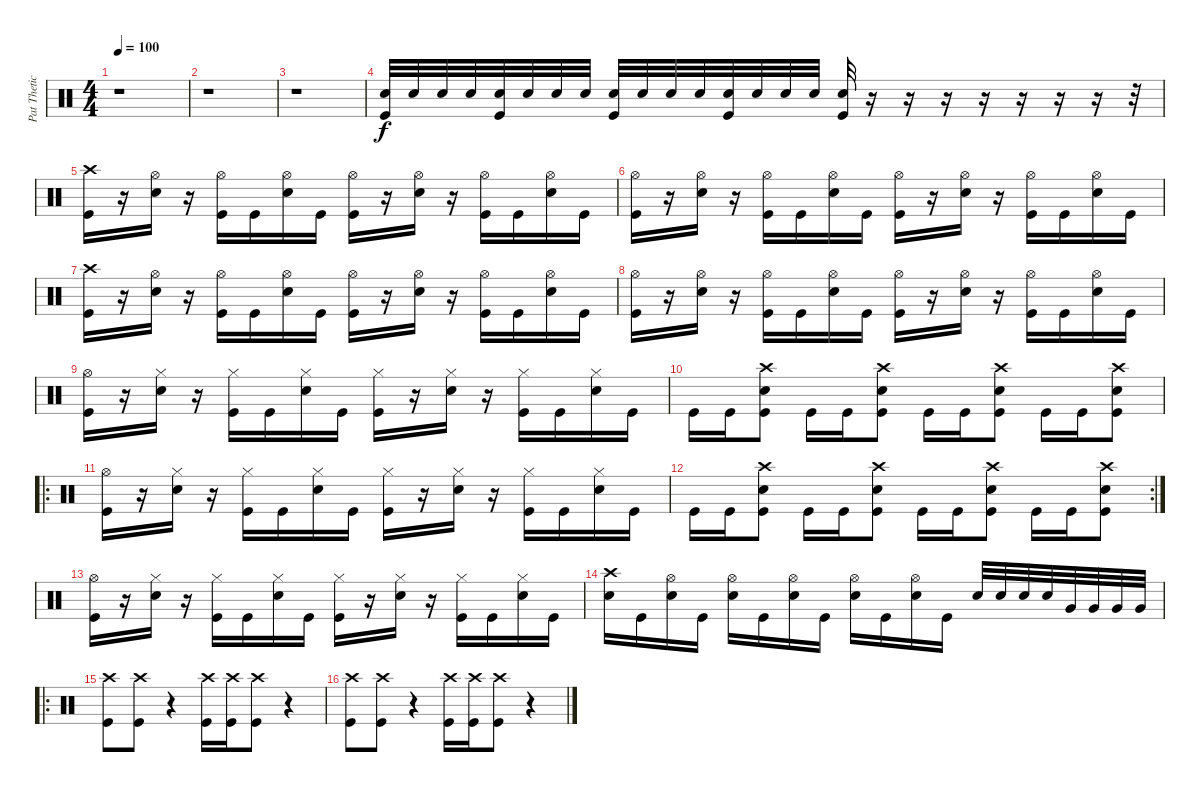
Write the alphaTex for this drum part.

\track ("Pat Thetic" "Pat Thetic") {instrument percussion}
\staff {score}
\articulation defaults
\ts (4 4)
\tempo 100
\clef neutral
\ks c
r.1{dy f} |
r.1 |
r.1 |
("Kick (hit)" "Snare (hit) 2").32 "Snare (hit) 2".32 "Snare (hit) 2".32 "Snare (hit) 2".32 ("Kick (hit)" "Snare (hit) 2").32 "Snare (hit) 2".32 "Snare (hit) 2".32 "Snare (hit) 2".32 ("Kick (hit)" "Snare (hit) 2").32 "Snare (hit) 2".32 "Snare (hit) 2".32 "Snare (hit) 2".32 ("Kick (hit)" "Snare (hit) 2").32 "Snare (hit) 2".32 "Snare (hit) 2".32 "Snare (hit) 2".32 ("Kick (hit)" "Snare (hit) 2").32 r.16 r.16 r.16 r.16 r.16 r.16 r.16 r.32 |
("Crash high (hit)" "Kick (hit)").16 r.16 ("Hi-Hat (open)" "Snare (hit) 2").16 r.16 ("Hi-Hat (open)" "Kick (hit)").16 "Kick (hit)".16 ("Hi-Hat (open)" "Snare (hit) 2").16 "Kick (hit)".16 ("Hi-Hat (open)" "Kick (hit)").16 r.16 ("Hi-Hat (open)" "Snare (hit) 2").16 r.16 ("Hi-Hat (open)" "Kick (hit)").16 "Kick (hit)".16 ("Hi-Hat (open)" "Snare (hit) 2").16 "Kick (hit)".16 |
("Hi-Hat (open)" "Kick (hit)").16 r.16 ("Hi-Hat (open)" "Snare (hit) 2").16 r.16 ("Hi-Hat (open)" "Kick (hit)").16 "Kick (hit)".16 ("Hi-Hat (open)" "Snare (hit) 2").16 "Kick (hit)".16 ("Hi-Hat (open)" "Kick (hit)").16 r.16 ("Hi-Hat (open)" "Snare (hit) 2").16 r.16 ("Hi-Hat (open)" "Kick (hit)").16 "Kick (hit)".16 ("Hi-Hat (open)" "Snare (hit) 2").16 "Kick (hit)".16 |
("Crash high (hit)" "Kick (hit)").16 r.16 ("Hi-Hat (open)" "Snare (hit) 2").16 r.16 ("Hi-Hat (open)" "Kick (hit)").16 "Kick (hit)".16 ("Hi-Hat (open)" "Snare (hit) 2").16 "Kick (hit)".16 ("Hi-Hat (open)" "Kick (hit)").16 r.16 ("Hi-Hat (open)" "Snare (hit) 2").16 r.16 ("Hi-Hat (open)" "Kick (hit)").16 "Kick (hit)".16 ("Hi-Hat (open)" "Snare (hit) 2").16 "Kick (hit)".16 |
("Hi-Hat (open)" "Kick (hit)").16 r.16 ("Hi-Hat (open)" "Snare (hit) 2").16 r.16 ("Hi-Hat (open)" "Kick (hit)").16 "Kick (hit)".16 ("Hi-Hat (open)" "Snare (hit) 2").16 "Kick (hit)".16 ("Hi-Hat (open)" "Kick (hit)").16 r.16 ("Hi-Hat (open)" "Snare (hit) 2").16 r.16 ("Hi-Hat (open)" "Kick (hit)").16 "Kick (hit)".16 ("Hi-Hat (open)" "Snare (hit) 2").16 "Kick (hit)".16 |
("Hi-Hat (open)" "Kick (hit)").16 r.16 ("Hi-Hat (closed)" "Snare (hit) 2").16 r.16 ("Hi-Hat (closed)" "Kick (hit)").16 "Kick (hit)".16 ("Hi-Hat (closed)" "Snare (hit) 2").16 "Kick (hit)".16 ("Hi-Hat (closed)" "Kick (hit)").16 r.16 ("Hi-Hat (closed)" "Snare (hit) 2").16 r.16 ("Hi-Hat (closed)" "Kick (hit)").16 "Kick (hit)".16 ("Hi-Hat (closed)" "Snare (hit) 2").16 "Kick (hit)".16 |
"Kick (hit)".16 "Kick (hit)".16 ("Crash high (hit)" "Snare (hit) 2" "Kick (hit)").8 "Kick (hit)".16 "Kick (hit)".16 ("Crash high (hit)" "Snare (hit) 2" "Kick (hit)").8 "Kick (hit)".16 "Kick (hit)".16 ("Crash high (hit)" "Snare (hit) 2" "Kick (hit)").8 "Kick (hit)".16 "Kick (hit)".16 ("Crash high (hit)" "Snare (hit) 2" "Kick (hit)").8 |
\ro
("Hi-Hat (open)" "Kick (hit)").16 r.16 ("Hi-Hat (closed)" "Snare (hit) 2").16 r.16 ("Hi-Hat (closed)" "Kick (hit)").16 "Kick (hit)".16 ("Hi-Hat (closed)" "Snare (hit) 2").16 "Kick (hit)".16 ("Hi-Hat (closed)" "Kick (hit)").16 r.16 ("Hi-Hat (closed)" "Snare (hit) 2").16 r.16 ("Hi-Hat (closed)" "Kick (hit)").16 "Kick (hit)".16 ("Hi-Hat (closed)" "Snare (hit) 2").16 "Kick (hit)".16 |
\rc 2 "Kick (hit)".16 "Kick (hit)".16
("Crash high (hit)" "Snare (hit) 2" "Kick (hit)").8 "Kick (hit)".16 "Kick (hit)".16 ("Crash high (hit)" "Snare (hit) 2" "Kick (hit)").8 "Kick (hit)".16 "Kick (hit)".16 ("Crash high (hit)" "Snare (hit) 2" "Kick (hit)").8 "Kick (hit)".16 "Kick (hit)".16 ("Crash high (hit)" "Snare (hit) 2" "Kick (hit)").8 |
("Hi-Hat (open)" "Kick (hit)").16 r.16 ("Hi-Hat (closed)" "Snare (hit) 2").16 r.16 ("Hi-Hat (closed)" "Kick (hit)").16 "Kick (hit)".16 ("Hi-Hat (closed)" "Snare (hit) 2").16 "Kick (hit)".16 ("Hi-Hat (closed)" "Kick (hit)").16 r.16 ("Hi-Hat (closed)" "Snare (hit) 2").16 r.16 ("Hi-Hat (closed)" "Kick (hit)").16 "Kick (hit)".16 ("Hi-Hat (closed)" "Snare (hit) 2").16 "Kick (hit)".16 |
("Crash high (hit)" "Snare (hit) 2").16 "Kick (hit)".16 ("Snare (hit) 2" "Hi-Hat (open)").16 "Kick (hit)".16 ("Snare (hit) 2" "Hi-Hat (open)").16 "Kick (hit)".16 ("Snare (hit) 2" "Hi-Hat (open)").16 "Kick (hit)".16 ("Snare (hit) 2" "Hi-Hat (open)").16 "Kick (hit)".16 ("Snare (hit) 2" "Hi-Hat (open)").16 "Kick (hit)".16 "Snare (hit) 2".32 "Snare (hit) 2".32 "Snare (hit) 2".32 "Snare (hit) 2".32 "Very Low Tom (hit)".32 "Very Low Tom (hit)".32 "Very Low Tom (hit)".32 "Very Low Tom (hit)".32 |
\ro
("Crash high (hit)" "Kick (hit)").8 ("Crash high (hit)" "Kick (hit)").8 r.4 ("Crash high (hit)" "Kick (hit)").16 ("Crash high (hit)" "Kick (hit)").16 ("Crash high (hit)" "Kick (hit)").8 r.4 |
("Crash high (hit)" "Kick (hit)").8 ("Crash high (hit)" "Kick (hit)").8 r.4 ("Crash high (hit)" "Kick (hit)").16 ("Crash high (hit)" "Kick (hit)").16 ("Crash high (hit)" "Kick (hit)").8 r.4
